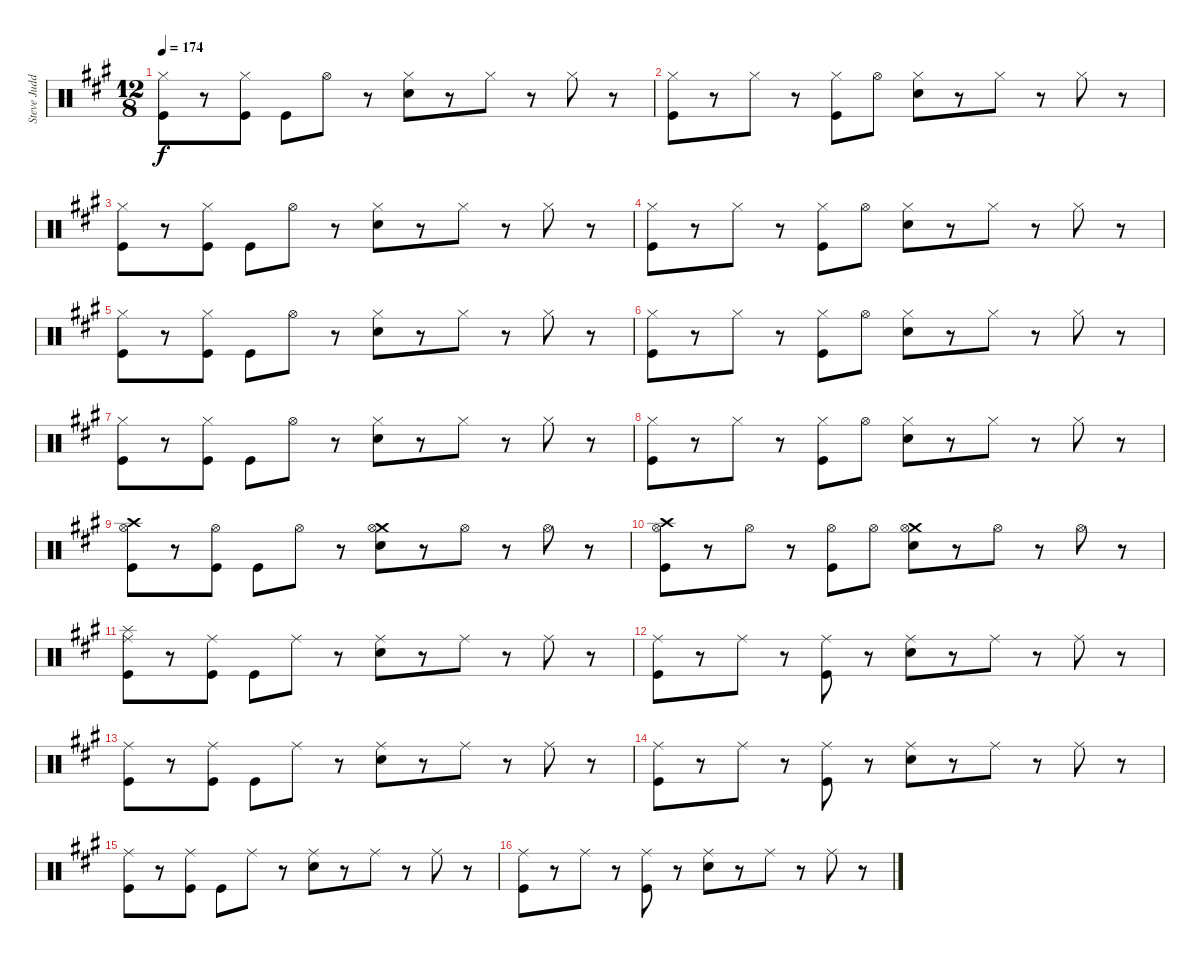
\track ("Steve Judd (Drums)" "Steve Judd") {instrument percussion}
\staff {score}
\articulation defaults
\ts (12 8)
\tempo 174
\clef neutral
\ks a
("Hi-Hat (closed)" "Kick (hit)").8{dy f} r.8 ("Hi-Hat (closed)" "Kick (hit)").8 "Kick (hit)".8 "Hi-Hat (open)".8 r.8 ("Snare (hit) 2" "Hi-Hat (closed)").8 r.8 "Hi-Hat (closed)".8 r.8 "Hi-Hat (closed)".8 r.8 |
("Hi-Hat (closed)" "Kick (hit)").8 r.8 "Hi-Hat (closed)".8 r.8 ("Hi-Hat (closed)" "Kick (hit)").8 "Hi-Hat (open)".8 ("Snare (hit) 2" "Hi-Hat (closed)").8 r.8 "Hi-Hat (closed)".8 r.8 "Hi-Hat (closed)".8 r.8 |
("Hi-Hat (closed)" "Kick (hit)").8 r.8 ("Hi-Hat (closed)" "Kick (hit)").8 "Kick (hit)".8 "Hi-Hat (open)".8 r.8 ("Snare (hit) 2" "Hi-Hat (closed)").8 r.8 "Hi-Hat (closed)".8 r.8 "Hi-Hat (closed)".8 r.8 |
("Hi-Hat (closed)" "Kick (hit)").8 r.8 "Hi-Hat (closed)".8 r.8 ("Hi-Hat (closed)" "Kick (hit)").8 "Hi-Hat (open)".8 ("Snare (hit) 2" "Hi-Hat (closed)").8 r.8 "Hi-Hat (closed)".8 r.8 "Hi-Hat (closed)".8 r.8 |
("Hi-Hat (closed)" "Kick (hit)").8 r.8 ("Hi-Hat (closed)" "Kick (hit)").8 "Kick (hit)".8 "Hi-Hat (open)".8 r.8 ("Snare (hit) 2" "Hi-Hat (closed)").8 r.8 "Hi-Hat (closed)".8 r.8 "Hi-Hat (closed)".8 r.8 |
("Hi-Hat (closed)" "Kick (hit)").8 r.8 "Hi-Hat (closed)".8 r.8 ("Hi-Hat (closed)" "Kick (hit)").8 "Hi-Hat (open)".8 ("Snare (hit) 2" "Hi-Hat (closed)").8 r.8 "Hi-Hat (closed)".8 r.8 "Hi-Hat (closed)".8 r.8 |
("Hi-Hat (closed)" "Kick (hit)").8 r.8 ("Hi-Hat (closed)" "Kick (hit)").8 "Kick (hit)".8 "Hi-Hat (open)".8 r.8 ("Snare (hit) 2" "Hi-Hat (closed)").8 r.8 "Hi-Hat (closed)".8 r.8 "Hi-Hat (closed)".8 r.8 |
("Hi-Hat (closed)" "Kick (hit)").8 r.8 "Hi-Hat (closed)".8 r.8 ("Hi-Hat (closed)" "Kick (hit)").8 "Hi-Hat (open)".8 ("Snare (hit) 2" "Hi-Hat (closed)").8 r.8 "Hi-Hat (closed)".8 r.8 "Hi-Hat (closed)".8 r.8 |
("Crash high (hit)" "Hi-Hat (open)" "Kick (hit)").8 r.8 ("Hi-Hat (open)" "Kick (hit)").8 "Kick (hit)".8 "Hi-Hat (open)".8 r.8 ("Crash medium (hit)" "Snare (hit) 2" "Hi-Hat (open)").8 r.8 "Hi-Hat (open)".8 r.8 "Hi-Hat (open)".8 r.8 |
("Crash high (hit)" "Hi-Hat (open)" "Kick (hit)").8 r.8 "Hi-Hat (open)".8 r.8 ("Hi-Hat (open)" "Kick (hit)").8 "Hi-Hat (open)".8 ("Crash medium (hit)" "Snare (hit) 2" "Hi-Hat (open)").8 r.8 "Hi-Hat (open)".8 r.8 "Hi-Hat (open)".8 r.8 |
("Splash (hit)" "Ride (middle)" "Kick (hit)").8 r.8 ("Ride (middle)" "Kick (hit)").8 "Kick (hit)".8 "Ride (middle)".8 r.8 ("Snare (hit) 2" "Ride (middle)").8 r.8 "Ride (middle)".8 r.8 "Ride (middle)".8 r.8 |
("Ride (middle)" "Kick (hit)").8 r.8 "Ride (middle)".8 r.8 ("Ride (middle)" "Kick (hit)").8 r.8 ("Snare (hit) 2" "Ride (middle)").8 r.8 "Ride (middle)".8 r.8 "Ride (middle)".8 r.8 |
("Ride (middle)" "Kick (hit)").8 r.8 ("Ride (middle)" "Kick (hit)").8 "Kick (hit)".8 "Ride (middle)".8 r.8 ("Snare (hit) 2" "Ride (middle)").8 r.8 "Ride (middle)".8 r.8 "Ride (middle)".8 r.8 |
("Ride (middle)" "Kick (hit)").8 r.8 "Ride (middle)".8 r.8 ("Ride (middle)" "Kick (hit)").8 r.8 ("Snare (hit) 2" "Ride (middle)").8 r.8 "Ride (middle)".8 r.8 "Ride (middle)".8 r.8 |
("Ride (middle)" "Kick (hit)").8 r.8 ("Ride (middle)" "Kick (hit)").8 "Kick (hit)".8 "Ride (middle)".8 r.8 ("Snare (hit) 2" "Ride (middle)").8 r.8 "Ride (middle)".8 r.8 "Ride (middle)".8 r.8 |
("Ride (middle)" "Kick (hit)").8 r.8 "Ride (middle)".8 r.8 ("Ride (middle)" "Kick (hit)").8 r.8 ("Snare (hit) 2" "Ride (middle)").8 r.8 "Ride (middle)".8 r.8 "Ride (middle)".8 r.8
